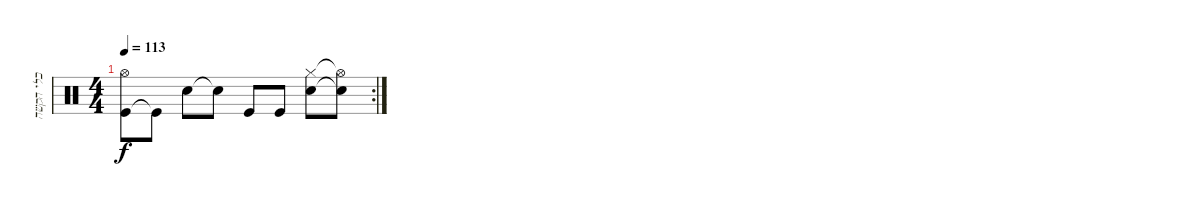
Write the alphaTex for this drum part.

\track ("כלי הקשה" "כלי הקשה") {instrument percussion}
\staff {score}
\articulation defaults
\rc 2
\ts (4 4)
\tempo 113
\clef neutral
\ks c
("Kick (hit)" "Hi-Hat (open)").8{dy f} "Kick (hit)"{t}.8 "Electric Snare (hit)".8 "Snare (hit)"{t}.8 "Kick (hit)".8 "Kick (hit)".8 ("Snare (hit) 2" "Hi-Hat (closed)").8 ("Snare (hit)"{t} "Hi-Hat (open)"{t}).8
